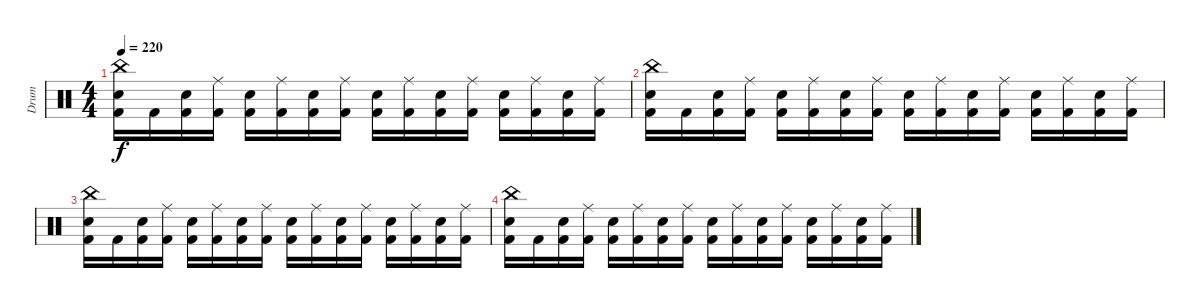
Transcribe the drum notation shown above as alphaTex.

\track ("Drum" "Drum") {instrument percussion}
\staff {score}
\articulation defaults
\ts (4 4)
\tempo 220
\clef neutral
\ks c
("China (hit)" "Electric Snare (hit)" "Kick (hit) 2").16{dy f} "Kick (hit) 2".16 ("Electric Snare (hit)" "Kick (hit) 2").16 ("Ride (middle)" "Kick (hit) 2").16 ("Electric Snare (hit)" "Kick (hit) 2").16 ("Ride (middle)" "Kick (hit) 2").16 ("Electric Snare (hit)" "Kick (hit) 2").16 ("Ride (middle)" "Kick (hit) 2").16 ("Electric Snare (hit)" "Kick (hit) 2").16 ("Ride (middle)" "Kick (hit) 2").16 ("Electric Snare (hit)" "Kick (hit) 2").16 ("Ride (middle)" "Kick (hit) 2").16 ("Electric Snare (hit)" "Kick (hit) 2").16 ("Ride (middle)" "Kick (hit) 2").16 ("Electric Snare (hit)" "Kick (hit) 2").16 ("Ride (middle)" "Kick (hit) 2").16 |
("China (hit)" "Electric Snare (hit)" "Kick (hit) 2").16 "Kick (hit) 2".16 ("Electric Snare (hit)" "Kick (hit) 2").16 ("Ride (middle)" "Kick (hit) 2").16 ("Electric Snare (hit)" "Kick (hit) 2").16 ("Ride (middle)" "Kick (hit) 2").16 ("Electric Snare (hit)" "Kick (hit) 2").16 ("Ride (middle)" "Kick (hit) 2").16 ("Electric Snare (hit)" "Kick (hit) 2").16 ("Ride (middle)" "Kick (hit) 2").16 ("Electric Snare (hit)" "Kick (hit) 2").16 ("Ride (middle)" "Kick (hit) 2").16 ("Electric Snare (hit)" "Kick (hit) 2").16 ("Ride (middle)" "Kick (hit) 2").16 ("Electric Snare (hit)" "Kick (hit) 2").16 ("Ride (middle)" "Kick (hit) 2").16 |
("China (hit)" "Electric Snare (hit)" "Kick (hit) 2").16 "Kick (hit) 2".16 ("Electric Snare (hit)" "Kick (hit) 2").16 ("Ride (middle)" "Kick (hit) 2").16 ("Electric Snare (hit)" "Kick (hit) 2").16 ("Ride (middle)" "Kick (hit) 2").16 ("Electric Snare (hit)" "Kick (hit) 2").16 ("Ride (middle)" "Kick (hit) 2").16 ("Electric Snare (hit)" "Kick (hit) 2").16 ("Ride (middle)" "Kick (hit) 2").16 ("Electric Snare (hit)" "Kick (hit) 2").16 ("Ride (middle)" "Kick (hit) 2").16 ("Electric Snare (hit)" "Kick (hit) 2").16 ("Ride (middle)" "Kick (hit) 2").16 ("Electric Snare (hit)" "Kick (hit) 2").16 ("Ride (middle)" "Kick (hit) 2").16 |
("China (hit)" "Electric Snare (hit)" "Kick (hit) 2").16 "Kick (hit) 2".16 ("Electric Snare (hit)" "Kick (hit) 2").16 ("Ride (middle)" "Kick (hit) 2").16 ("Electric Snare (hit)" "Kick (hit) 2").16 ("Ride (middle)" "Kick (hit) 2").16 ("Electric Snare (hit)" "Kick (hit) 2").16 ("Ride (middle)" "Kick (hit) 2").16 ("Electric Snare (hit)" "Kick (hit) 2").16 ("Ride (middle)" "Kick (hit) 2").16 ("Electric Snare (hit)" "Kick (hit) 2").16 ("Ride (middle)" "Kick (hit) 2").16 ("Electric Snare (hit)" "Kick (hit) 2").16 ("Ride (middle)" "Kick (hit) 2").16 ("Electric Snare (hit)" "Kick (hit) 2").16 ("Ride (middle)" "Kick (hit) 2").16
